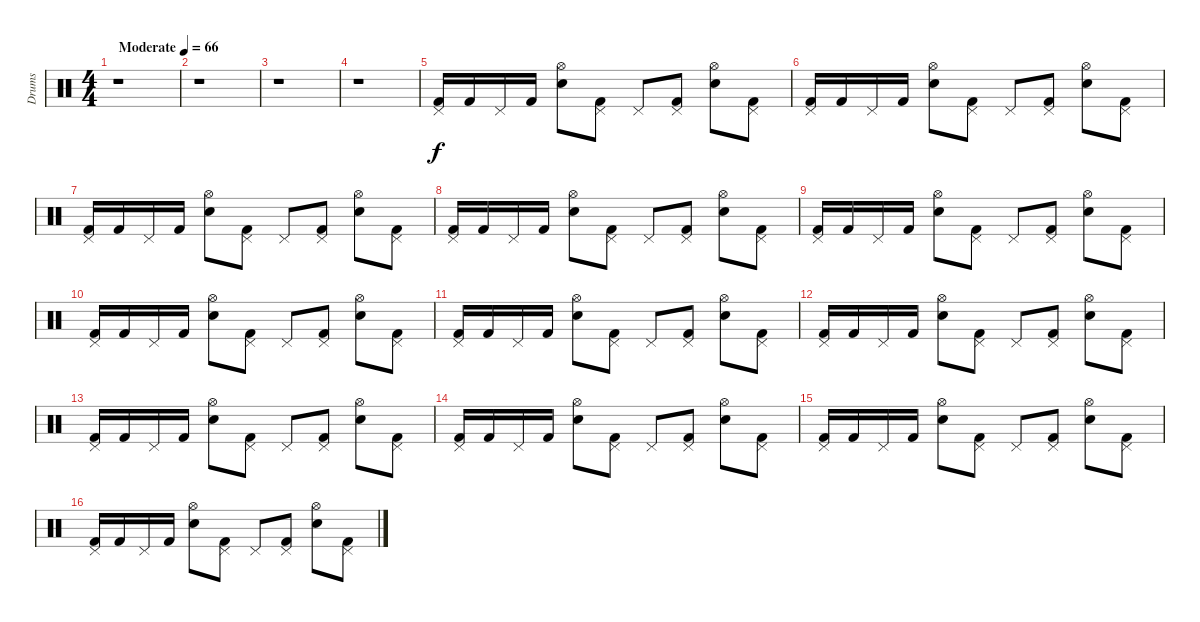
\track ("Drums" "Drums") {instrument percussion}
\staff {score}
\articulation defaults
\ts (4 4)
\tempo (66 "Moderate")
\clef neutral
\ks c
r.1{dy f} |
r.1 |
r.1 |
r.1 |
("Pedal Hi-Hat (hit)" "Kick (hit) 2").16 "Kick (hit) 2".16 "Pedal Hi-Hat (hit)".16 "Kick (hit) 2".16 ("Hi-Hat (open)" "Snare (hit) 2").8 ("Pedal Hi-Hat (hit)" "Kick (hit) 2").8 "Pedal Hi-Hat (hit)".8 ("Pedal Hi-Hat (hit)" "Kick (hit) 2").8 ("Hi-Hat (open)" "Snare (hit) 2").8 ("Pedal Hi-Hat (hit)" "Kick (hit) 2").8 |
("Pedal Hi-Hat (hit)" "Kick (hit) 2").16 "Kick (hit) 2".16 "Pedal Hi-Hat (hit)".16 "Kick (hit) 2".16 ("Hi-Hat (open)" "Snare (hit) 2").8 ("Pedal Hi-Hat (hit)" "Kick (hit) 2").8 "Pedal Hi-Hat (hit)".8 ("Pedal Hi-Hat (hit)" "Kick (hit) 2").8 ("Hi-Hat (open)" "Snare (hit) 2").8 ("Pedal Hi-Hat (hit)" "Kick (hit) 2").8 |
("Pedal Hi-Hat (hit)" "Kick (hit) 2").16 "Kick (hit) 2".16 "Pedal Hi-Hat (hit)".16 "Kick (hit) 2".16 ("Hi-Hat (open)" "Snare (hit) 2").8 ("Pedal Hi-Hat (hit)" "Kick (hit) 2").8 "Pedal Hi-Hat (hit)".8 ("Pedal Hi-Hat (hit)" "Kick (hit) 2").8 ("Hi-Hat (open)" "Snare (hit) 2").8 ("Pedal Hi-Hat (hit)" "Kick (hit) 2").8 |
("Pedal Hi-Hat (hit)" "Kick (hit) 2").16 "Kick (hit) 2".16 "Pedal Hi-Hat (hit)".16 "Kick (hit) 2".16 ("Hi-Hat (open)" "Snare (hit) 2").8 ("Pedal Hi-Hat (hit)" "Kick (hit) 2").8 "Pedal Hi-Hat (hit)".8 ("Pedal Hi-Hat (hit)" "Kick (hit) 2").8 ("Hi-Hat (open)" "Snare (hit) 2").8 ("Pedal Hi-Hat (hit)" "Kick (hit) 2").8 |
("Pedal Hi-Hat (hit)" "Kick (hit) 2").16 "Kick (hit) 2".16 "Pedal Hi-Hat (hit)".16 "Kick (hit) 2".16 ("Hi-Hat (open)" "Snare (hit) 2").8 ("Pedal Hi-Hat (hit)" "Kick (hit) 2").8 "Pedal Hi-Hat (hit)".8 ("Pedal Hi-Hat (hit)" "Kick (hit) 2").8 ("Hi-Hat (open)" "Snare (hit) 2").8 ("Pedal Hi-Hat (hit)" "Kick (hit) 2").8 |
("Pedal Hi-Hat (hit)" "Kick (hit) 2").16 "Kick (hit) 2".16 "Pedal Hi-Hat (hit)".16 "Kick (hit) 2".16 ("Hi-Hat (open)" "Snare (hit) 2").8 ("Pedal Hi-Hat (hit)" "Kick (hit) 2").8 "Pedal Hi-Hat (hit)".8 ("Pedal Hi-Hat (hit)" "Kick (hit) 2").8 ("Hi-Hat (open)" "Snare (hit) 2").8 ("Pedal Hi-Hat (hit)" "Kick (hit) 2").8 |
("Pedal Hi-Hat (hit)" "Kick (hit) 2").16 "Kick (hit) 2".16 "Pedal Hi-Hat (hit)".16 "Kick (hit) 2".16 ("Hi-Hat (open)" "Snare (hit) 2").8 ("Pedal Hi-Hat (hit)" "Kick (hit) 2").8 "Pedal Hi-Hat (hit)".8 ("Pedal Hi-Hat (hit)" "Kick (hit) 2").8 ("Hi-Hat (open)" "Snare (hit) 2").8 ("Pedal Hi-Hat (hit)" "Kick (hit) 2").8 |
("Pedal Hi-Hat (hit)" "Kick (hit) 2").16 "Kick (hit) 2".16 "Pedal Hi-Hat (hit)".16 "Kick (hit) 2".16 ("Hi-Hat (open)" "Snare (hit) 2").8 ("Pedal Hi-Hat (hit)" "Kick (hit) 2").8 "Pedal Hi-Hat (hit)".8 ("Pedal Hi-Hat (hit)" "Kick (hit) 2").8 ("Hi-Hat (open)" "Snare (hit) 2").8 ("Pedal Hi-Hat (hit)" "Kick (hit) 2").8 |
("Pedal Hi-Hat (hit)" "Kick (hit) 2").16 "Kick (hit) 2".16 "Pedal Hi-Hat (hit)".16 "Kick (hit) 2".16 ("Hi-Hat (open)" "Snare (hit) 2").8 ("Pedal Hi-Hat (hit)" "Kick (hit) 2").8 "Pedal Hi-Hat (hit)".8 ("Pedal Hi-Hat (hit)" "Kick (hit) 2").8 ("Hi-Hat (open)" "Snare (hit) 2").8 ("Pedal Hi-Hat (hit)" "Kick (hit) 2").8 |
("Pedal Hi-Hat (hit)" "Kick (hit) 2").16 "Kick (hit) 2".16 "Pedal Hi-Hat (hit)".16 "Kick (hit) 2".16 ("Hi-Hat (open)" "Snare (hit) 2").8 ("Pedal Hi-Hat (hit)" "Kick (hit) 2").8 "Pedal Hi-Hat (hit)".8 ("Pedal Hi-Hat (hit)" "Kick (hit) 2").8 ("Hi-Hat (open)" "Snare (hit) 2").8 ("Pedal Hi-Hat (hit)" "Kick (hit) 2").8 |
("Pedal Hi-Hat (hit)" "Kick (hit) 2").16 "Kick (hit) 2".16 "Pedal Hi-Hat (hit)".16 "Kick (hit) 2".16 ("Hi-Hat (open)" "Snare (hit) 2").8 ("Pedal Hi-Hat (hit)" "Kick (hit) 2").8 "Pedal Hi-Hat (hit)".8 ("Pedal Hi-Hat (hit)" "Kick (hit) 2").8 ("Hi-Hat (open)" "Snare (hit) 2").8 ("Pedal Hi-Hat (hit)" "Kick (hit) 2").8 |
("Pedal Hi-Hat (hit)" "Kick (hit) 2").16 "Kick (hit) 2".16 "Pedal Hi-Hat (hit)".16 "Kick (hit) 2".16 ("Hi-Hat (open)" "Snare (hit) 2").8 ("Pedal Hi-Hat (hit)" "Kick (hit) 2").8 "Pedal Hi-Hat (hit)".8 ("Pedal Hi-Hat (hit)" "Kick (hit) 2").8 ("Hi-Hat (open)" "Snare (hit) 2").8 ("Pedal Hi-Hat (hit)" "Kick (hit) 2").8
